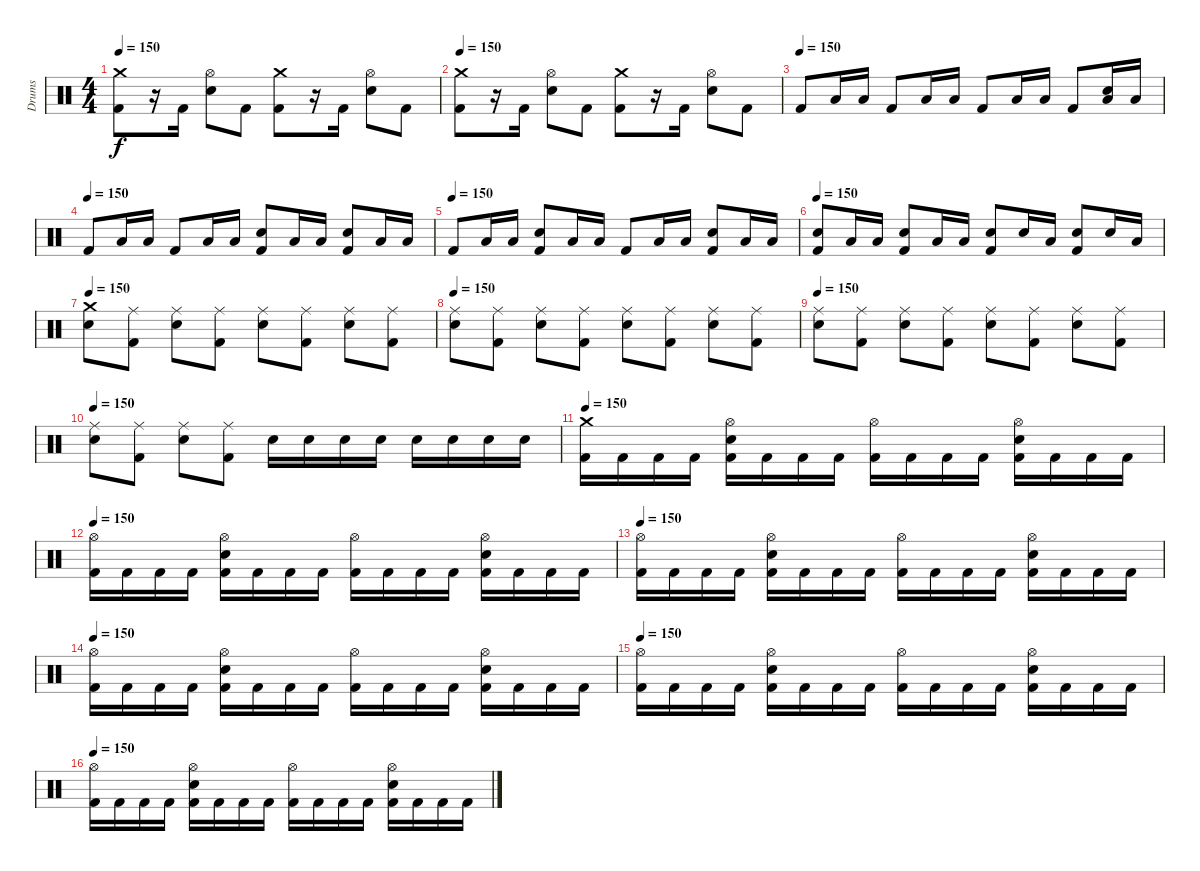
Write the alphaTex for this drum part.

\track ("Drums" "Drums") {instrument percussion}
\staff {score}
\articulation defaults
\ts (4 4)
\tempo 150
\clef neutral
\ks c
("Kick (hit) 2" "Crash medium (hit)").8{dy f} r.16 "Kick (hit) 2".16 ("Electric Snare (hit)" "Hi-Hat (open)").8 "Kick (hit) 2".8 ("Kick (hit) 2" "Crash medium (hit)").8 r.16 "Kick (hit) 2".16 ("Electric Snare (hit)" "Hi-Hat (open)").8 "Kick (hit) 2".8 |
\tempo 150
("Kick (hit) 2" "Crash medium (hit)").8 r.16 "Kick (hit) 2".16 ("Electric Snare (hit)" "Hi-Hat (open)").8 "Kick (hit) 2".8 ("Kick (hit) 2" "Crash medium (hit)").8 r.16 "Kick (hit) 2".16 ("Electric Snare (hit)" "Hi-Hat (open)").8 "Kick (hit) 2".8 |
\tempo (150)
"Kick (hit) 2".8 "Low Tom (hit)".16 "Low Tom (hit)".16 "Kick (hit) 2".8 "Low Tom (hit)".16 "Low Tom (hit)".16 "Kick (hit) 2".8 "Low Tom (hit)".16 "Low Tom (hit)".16 "Kick (hit) 2".8 ("Electric Snare (hit)" "Low Tom (hit)").16 "Low Tom (hit)".16 |
\tempo (150)
"Kick (hit) 2".8 "Low Tom (hit)".16 "Low Tom (hit)".16 "Kick (hit) 2".8 "Low Tom (hit)".16 "Low Tom (hit)".16 ("Kick (hit) 2" "Electric Snare (hit)").8 "Low Tom (hit)".16 "Low Tom (hit)".16 ("Kick (hit) 2" "Electric Snare (hit)").8 "Low Tom (hit)".16 "Low Tom (hit)".16 |
\tempo (150)
"Kick (hit) 2".8 "Low Tom (hit)".16 "Low Tom (hit)".16 ("Kick (hit) 2" "Electric Snare (hit)").8 "Low Tom (hit)".16 "Low Tom (hit)".16 "Kick (hit) 2".8 "Low Tom (hit)".16 "Low Tom (hit)".16 ("Kick (hit) 2" "Electric Snare (hit)").8 "Low Tom (hit)".16 "Low Tom (hit)".16 |
\tempo 150
("Kick (hit) 2" "Electric Snare (hit)").8 "Low Tom (hit)".16 "Low Tom (hit)".16 ("Kick (hit) 2" "Electric Snare (hit)").8 "Low Tom (hit)".16 "Low Tom (hit)".16 ("Kick (hit) 2" "Electric Snare (hit)").8 "Electric Snare (hit)".16 "Low Tom (hit)".16 ("Kick (hit) 2" "Electric Snare (hit)").8 "Electric Snare (hit)".16 "Low Tom (hit)".16 |
\tempo 150
("Electric Snare (hit)" "Crash medium (hit)").8 ("Kick (hit) 2" "Ride (middle)").8 ("Electric Snare (hit)" "Ride (middle)").8 ("Kick (hit) 2" "Ride (middle)").8 ("Electric Snare (hit)" "Ride (middle)").8 ("Kick (hit) 2" "Ride (middle)").8 ("Electric Snare (hit)" "Ride (middle)").8 ("Kick (hit) 2" "Ride (middle)").8 |
\tempo 150
("Electric Snare (hit)" "Ride (middle)").8 ("Kick (hit) 2" "Ride (middle)").8 ("Electric Snare (hit)" "Ride (middle)").8 ("Kick (hit) 2" "Ride (middle)").8 ("Electric Snare (hit)" "Ride (middle)").8 ("Kick (hit) 2" "Ride (middle)").8 ("Electric Snare (hit)" "Ride (middle)").8 ("Kick (hit) 2" "Ride (middle)").8 |
\tempo 150
("Electric Snare (hit)" "Ride (middle)").8 ("Kick (hit) 2" "Ride (middle)").8 ("Electric Snare (hit)" "Ride (middle)").8 ("Kick (hit) 2" "Ride (middle)").8 ("Electric Snare (hit)" "Ride (middle)").8 ("Kick (hit) 2" "Ride (middle)").8 ("Electric Snare (hit)" "Ride (middle)").8 ("Kick (hit) 2" "Ride (middle)").8 |
\tempo 150
("Electric Snare (hit)" "Ride (middle)").8 ("Kick (hit) 2" "Ride (middle)").8 ("Electric Snare (hit)" "Ride (middle)").8 ("Kick (hit) 2" "Ride (middle)").8 "Electric Snare (hit)".16 "Electric Snare (hit)".16 "Electric Snare (hit)".16 "Electric Snare (hit)".16 "Snare (hit) 2".16 "Snare (hit) 2".16 "Snare (hit) 2".16 "Snare (hit) 2".16 |
\tempo 150
("Kick (hit) 2" "Crash medium (hit)").16 "Kick (hit) 2".16 "Kick (hit) 2".16 "Kick (hit) 2".16 ("Kick (hit) 2" "Electric Snare (hit)" "Hi-Hat (open)").16 "Kick (hit) 2".16 "Kick (hit) 2".16 "Kick (hit) 2".16 ("Kick (hit) 2" "Hi-Hat (open)").16 "Kick (hit) 2".16 "Kick (hit) 2".16 "Kick (hit) 2".16 ("Kick (hit) 2" "Electric Snare (hit)" "Hi-Hat (open)").16 "Kick (hit) 2".16 "Kick (hit) 2".16 "Kick (hit) 2".16 |
\tempo 150
("Kick (hit) 2" "Hi-Hat (open)").16 "Kick (hit) 2".16 "Kick (hit) 2".16 "Kick (hit) 2".16 ("Kick (hit) 2" "Electric Snare (hit)" "Hi-Hat (open)").16 "Kick (hit) 2".16 "Kick (hit) 2".16 "Kick (hit) 2".16 ("Kick (hit) 2" "Hi-Hat (open)").16 "Kick (hit) 2".16 "Kick (hit) 2".16 "Kick (hit) 2".16 ("Kick (hit) 2" "Electric Snare (hit)" "Hi-Hat (open)").16 "Kick (hit) 2".16 "Kick (hit) 2".16 "Kick (hit) 2".16 |
\tempo 150
("Kick (hit) 2" "Hi-Hat (open)").16 "Kick (hit) 2".16 "Kick (hit) 2".16 "Kick (hit) 2".16 ("Kick (hit) 2" "Electric Snare (hit)" "Hi-Hat (open)").16 "Kick (hit) 2".16 "Kick (hit) 2".16 "Kick (hit) 2".16 ("Kick (hit) 2" "Hi-Hat (open)").16 "Kick (hit) 2".16 "Kick (hit) 2".16 "Kick (hit) 2".16 ("Kick (hit) 2" "Electric Snare (hit)" "Hi-Hat (open)").16 "Kick (hit) 2".16 "Kick (hit) 2".16 "Kick (hit) 2".16 |
\tempo 150
("Kick (hit) 2" "Hi-Hat (open)").16 "Kick (hit) 2".16 "Kick (hit) 2".16 "Kick (hit) 2".16 ("Kick (hit) 2" "Electric Snare (hit)" "Hi-Hat (open)").16 "Kick (hit) 2".16 "Kick (hit) 2".16 "Kick (hit) 2".16 ("Kick (hit) 2" "Hi-Hat (open)").16 "Kick (hit) 2".16 "Kick (hit) 2".16 "Kick (hit) 2".16 ("Kick (hit) 2" "Electric Snare (hit)" "Hi-Hat (open)").16 "Kick (hit) 2".16 "Kick (hit) 2".16 "Kick (hit) 2".16 |
\tempo 150
("Kick (hit) 2" "Hi-Hat (open)").16 "Kick (hit) 2".16 "Kick (hit) 2".16 "Kick (hit) 2".16 ("Kick (hit) 2" "Electric Snare (hit)" "Hi-Hat (open)").16 "Kick (hit) 2".16 "Kick (hit) 2".16 "Kick (hit) 2".16 ("Kick (hit) 2" "Hi-Hat (open)").16 "Kick (hit) 2".16 "Kick (hit) 2".16 "Kick (hit) 2".16 ("Kick (hit) 2" "Electric Snare (hit)" "Hi-Hat (open)").16 "Kick (hit) 2".16 "Kick (hit) 2".16 "Kick (hit) 2".16 |
\tempo 150
("Kick (hit) 2" "Hi-Hat (open)").16 "Kick (hit) 2".16 "Kick (hit) 2".16 "Kick (hit) 2".16 ("Kick (hit) 2" "Electric Snare (hit)" "Hi-Hat (open)").16 "Kick (hit) 2".16 "Kick (hit) 2".16 "Kick (hit) 2".16 ("Kick (hit) 2" "Hi-Hat (open)").16 "Kick (hit) 2".16 "Kick (hit) 2".16 "Kick (hit) 2".16 ("Kick (hit) 2" "Electric Snare (hit)" "Hi-Hat (open)").16 "Kick (hit) 2".16 "Kick (hit) 2".16 "Kick (hit) 2".16
